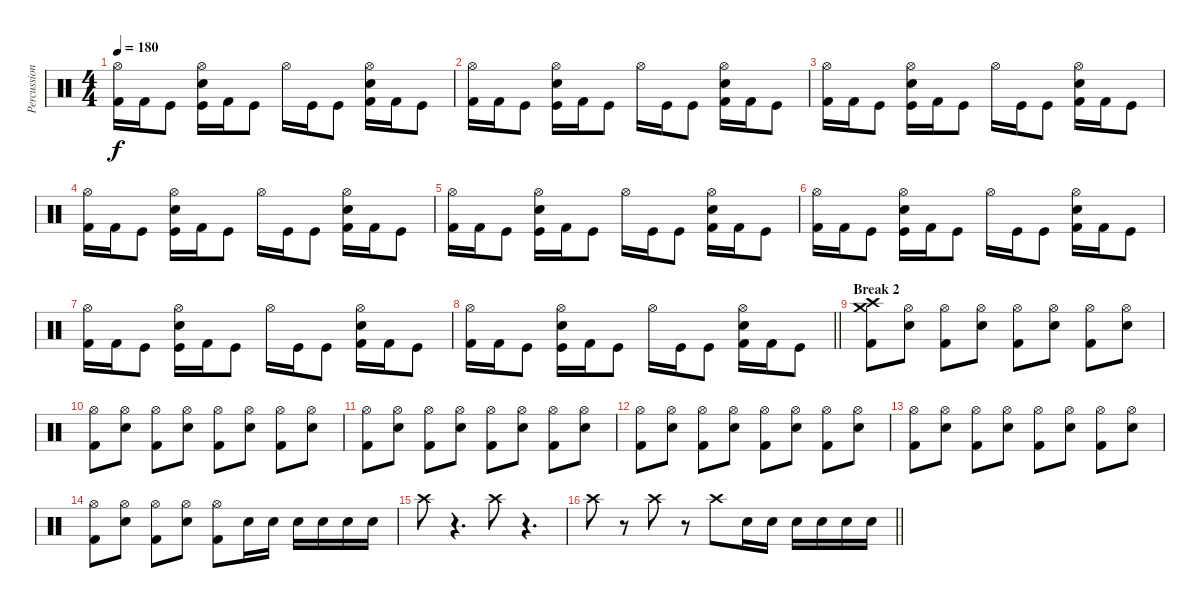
\track ("Percussion" "Percussion") {instrument percussion}
\staff {score}
\articulation defaults
\ts (4 4)
\tempo 180
\clef neutral
\ks c
("Hi-Hat (open)" "Kick (hit) 2").16{dy f} "Kick (hit) 2".16 "Kick (hit)".8 ("Hi-Hat (open)" "Electric Snare (hit)" "Kick (hit)").16 "Kick (hit) 2".16 "Kick (hit)".8 "Hi-Hat (open)".16 "Kick (hit)".16 "Kick (hit)".8 ("Hi-Hat (open)" "Electric Snare (hit)" "Kick (hit) 2").16 "Kick (hit) 2".16 "Kick (hit)".8 |
("Hi-Hat (open)" "Kick (hit) 2").16 "Kick (hit) 2".16 "Kick (hit)".8 ("Hi-Hat (open)" "Electric Snare (hit)" "Kick (hit)").16 "Kick (hit) 2".16 "Kick (hit)".8 "Hi-Hat (open)".16 "Kick (hit)".16 "Kick (hit)".8 ("Hi-Hat (open)" "Electric Snare (hit)" "Kick (hit) 2").16 "Kick (hit) 2".16 "Kick (hit)".8 |
("Hi-Hat (open)" "Kick (hit) 2").16 "Kick (hit) 2".16 "Kick (hit)".8 ("Hi-Hat (open)" "Electric Snare (hit)" "Kick (hit)").16 "Kick (hit) 2".16 "Kick (hit)".8 "Hi-Hat (open)".16 "Kick (hit)".16 "Kick (hit)".8 ("Hi-Hat (open)" "Electric Snare (hit)" "Kick (hit) 2").16 "Kick (hit) 2".16 "Kick (hit)".8 |
("Hi-Hat (open)" "Kick (hit) 2").16 "Kick (hit) 2".16 "Kick (hit)".8 ("Hi-Hat (open)" "Electric Snare (hit)" "Kick (hit)").16 "Kick (hit) 2".16 "Kick (hit)".8 "Hi-Hat (open)".16 "Kick (hit)".16 "Kick (hit)".8 ("Hi-Hat (open)" "Electric Snare (hit)" "Kick (hit) 2").16 "Kick (hit) 2".16 "Kick (hit)".8 |
("Hi-Hat (open)" "Kick (hit) 2").16 "Kick (hit) 2".16 "Kick (hit)".8 ("Hi-Hat (open)" "Electric Snare (hit)" "Kick (hit)").16 "Kick (hit) 2".16 "Kick (hit)".8 "Hi-Hat (open)".16 "Kick (hit)".16 "Kick (hit)".8 ("Hi-Hat (open)" "Electric Snare (hit)" "Kick (hit) 2").16 "Kick (hit) 2".16 "Kick (hit)".8 |
("Hi-Hat (open)" "Kick (hit) 2").16 "Kick (hit) 2".16 "Kick (hit)".8 ("Hi-Hat (open)" "Electric Snare (hit)" "Kick (hit)").16 "Kick (hit) 2".16 "Kick (hit)".8 "Hi-Hat (open)".16 "Kick (hit)".16 "Kick (hit)".8 ("Hi-Hat (open)" "Electric Snare (hit)" "Kick (hit) 2").16 "Kick (hit) 2".16 "Kick (hit)".8 |
("Hi-Hat (open)" "Kick (hit) 2").16 "Kick (hit) 2".16 "Kick (hit)".8 ("Hi-Hat (open)" "Electric Snare (hit)" "Kick (hit)").16 "Kick (hit) 2".16 "Kick (hit)".8 "Hi-Hat (open)".16 "Kick (hit)".16 "Kick (hit)".8 ("Hi-Hat (open)" "Electric Snare (hit)" "Kick (hit) 2").16 "Kick (hit) 2".16 "Kick (hit)".8 |
\barLineRight lightlight
("Hi-Hat (open)" "Kick (hit) 2").16 "Kick (hit) 2".16 "Kick (hit)".8 ("Hi-Hat (open)" "Electric Snare (hit)" "Kick (hit)").16 "Kick (hit) 2".16 "Kick (hit)".8 "Hi-Hat (open)".16 "Kick (hit)".16 "Kick (hit)".8 ("Hi-Hat (open)" "Electric Snare (hit)" "Kick (hit) 2").16 "Kick (hit) 2".16 "Kick (hit)".8 |
\section ("" "Break 2")
("Crash high (hit)" "Crash medium (hit)" "Kick (hit) 2").8 ("Hi-Hat (open)" "Electric Snare (hit)").8 ("Hi-Hat (open)" "Kick (hit) 2").8 ("Hi-Hat (open)" "Electric Snare (hit)").8 ("Hi-Hat (open)" "Kick (hit) 2").8 ("Hi-Hat (open)" "Electric Snare (hit)").8 ("Hi-Hat (open)" "Kick (hit) 2").8 ("Hi-Hat (open)" "Electric Snare (hit)").8 |
("Hi-Hat (open)" "Kick (hit) 2").8 ("Hi-Hat (open)" "Electric Snare (hit)").8 ("Hi-Hat (open)" "Kick (hit) 2").8 ("Hi-Hat (open)" "Electric Snare (hit)").8 ("Hi-Hat (open)" "Kick (hit) 2").8 ("Hi-Hat (open)" "Electric Snare (hit)").8 ("Hi-Hat (open)" "Kick (hit) 2").8 ("Hi-Hat (open)" "Electric Snare (hit)").8 |
("Hi-Hat (open)" "Kick (hit) 2").8 ("Hi-Hat (open)" "Electric Snare (hit)").8 ("Hi-Hat (open)" "Kick (hit) 2").8 ("Hi-Hat (open)" "Electric Snare (hit)").8 ("Hi-Hat (open)" "Kick (hit) 2").8 ("Hi-Hat (open)" "Electric Snare (hit)").8 ("Hi-Hat (open)" "Kick (hit) 2").8 ("Hi-Hat (open)" "Electric Snare (hit)").8 |
("Hi-Hat (open)" "Kick (hit) 2").8 ("Hi-Hat (open)" "Electric Snare (hit)").8 ("Hi-Hat (open)" "Kick (hit) 2").8 ("Hi-Hat (open)" "Electric Snare (hit)").8 ("Hi-Hat (open)" "Kick (hit) 2").8 ("Hi-Hat (open)" "Electric Snare (hit)").8 ("Hi-Hat (open)" "Kick (hit) 2").8 ("Hi-Hat (open)" "Electric Snare (hit)").8 |
("Hi-Hat (open)" "Kick (hit) 2").8 ("Hi-Hat (open)" "Electric Snare (hit)").8 ("Hi-Hat (open)" "Kick (hit) 2").8 ("Hi-Hat (open)" "Electric Snare (hit)").8 ("Hi-Hat (open)" "Kick (hit) 2").8 ("Hi-Hat (open)" "Electric Snare (hit)").8 ("Hi-Hat (open)" "Kick (hit) 2").8 ("Hi-Hat (open)" "Electric Snare (hit)").8 |
("Hi-Hat (open)" "Kick (hit) 2").8 ("Hi-Hat (open)" "Electric Snare (hit)").8 ("Hi-Hat (open)" "Kick (hit) 2").8 ("Hi-Hat (open)" "Electric Snare (hit)").8 ("Hi-Hat (open)" "Kick (hit) 2").8 "Electric Snare (hit)".16 "Electric Snare (hit)".16 "Electric Snare (hit)".16 "Electric Snare (hit)".16 "Electric Snare (hit)".16 "Electric Snare (hit)".16 |
"Crash high (hit)".8 r.4{d} "Crash high (hit)".8 r.4{d} |
\barLineRight lightlight "Crash high (hit)".8
r.8 "Crash high (hit)".8 r.8 "Crash high (hit)".8 "Electric Snare (hit)".16 "Electric Snare (hit)".16 "Electric Snare (hit)".16 "Electric Snare (hit)".16 "Electric Snare (hit)".16 "Electric Snare (hit)".16
